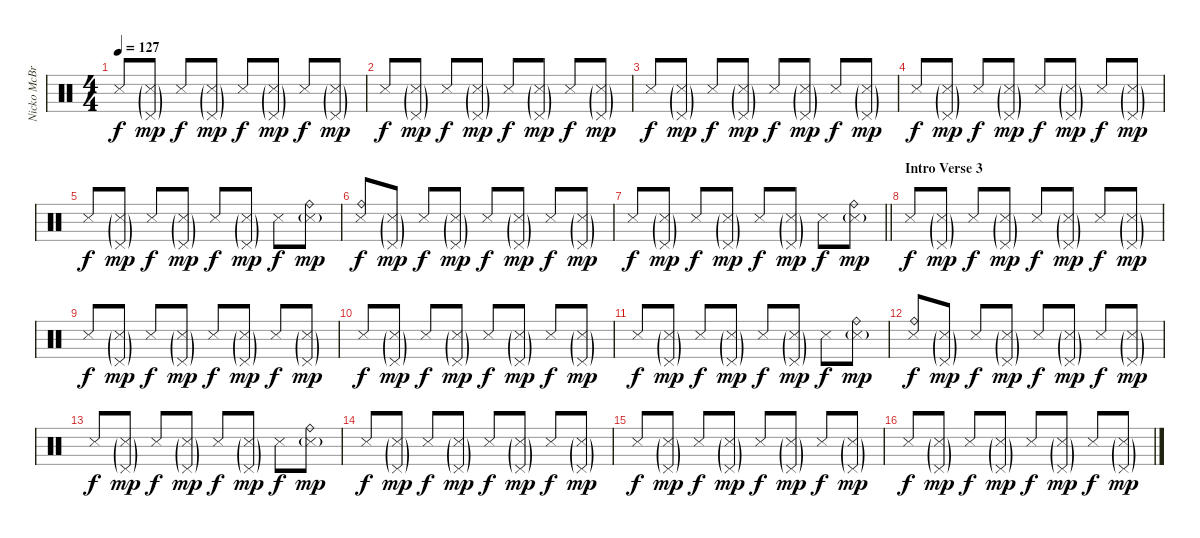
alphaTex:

\track ("Nicko McBrain" "Nicko McBr") {instrument percussion}
\staff {score}
\articulation defaults
\ts (4 4)
\tempo 127
\clef neutral
\ks c "Snare (side stick) 3".8{dy f}
("Pedal Hi-Hat (hit)"{g} "Snare (side stick) 3"{g}).8{dy mp} "Snare (side stick) 3".8{dy f} ("Pedal Hi-Hat (hit)"{g} "Snare (side stick) 3"{g}).8{dy mp} "Snare (side stick) 3".8{dy f} ("Pedal Hi-Hat (hit)"{g} "Snare (side stick) 3"{g}).8{dy mp} "Snare (side stick) 3".8{dy f} ("Pedal Hi-Hat (hit)"{g} "Snare (side stick) 3"{g}).8{dy mp} |
"Snare (side stick) 3".8{dy f} ("Pedal Hi-Hat (hit)"{g} "Snare (side stick) 3"{g}).8{dy mp} "Snare (side stick) 3".8{dy f} ("Pedal Hi-Hat (hit)"{g} "Snare (side stick) 3"{g}).8{dy mp} "Snare (side stick) 3".8{dy f} ("Pedal Hi-Hat (hit)"{g} "Snare (side stick) 3"{g}).8{dy mp} "Snare (side stick) 3".8{dy f} ("Pedal Hi-Hat (hit)"{g} "Snare (side stick) 3"{g}).8{dy mp} |
"Snare (side stick) 3".8{dy f} ("Pedal Hi-Hat (hit)"{g} "Snare (side stick) 3"{g}).8{dy mp} "Snare (side stick) 3".8{dy f} ("Pedal Hi-Hat (hit)"{g} "Snare (side stick) 3"{g}).8{dy mp} "Snare (side stick) 3".8{dy f} ("Pedal Hi-Hat (hit)"{g} "Snare (side stick) 3"{g}).8{dy mp} "Snare (side stick) 3".8{dy f} ("Pedal Hi-Hat (hit)"{g} "Snare (side stick) 3"{g}).8{dy mp} |
"Snare (side stick) 3".8{dy f} ("Pedal Hi-Hat (hit)"{g} "Snare (side stick) 3"{g}).8{dy mp} "Snare (side stick) 3".8{dy f} ("Pedal Hi-Hat (hit)"{g} "Snare (side stick) 3"{g}).8{dy mp} "Snare (side stick) 3".8{dy f} ("Pedal Hi-Hat (hit)"{g} "Snare (side stick) 3"{g}).8{dy mp} "Snare (side stick) 3".8{dy f} ("Pedal Hi-Hat (hit)"{g} "Snare (side stick) 3"{g}).8{dy mp} |
"Snare (side stick) 3".8{dy f} ("Pedal Hi-Hat (hit)"{g} "Snare (side stick) 3"{g}).8{dy mp} "Snare (side stick) 3".8{dy f} ("Pedal Hi-Hat (hit)"{g} "Snare (side stick) 3"{g}).8{dy mp} "Snare (side stick) 3".8{dy f} ("Pedal Hi-Hat (hit)"{g} "Snare (side stick) 3"{g}).8{dy mp} "Snare (side stick) 3".8{dy f} ("Ride (bell)" "Snare (side stick) 3"{g}).8{dy mp} |
("Ride (bell)" "Snare (side stick) 3").8{dy f} ("Pedal Hi-Hat (hit)"{g} "Snare (side stick) 3"{g}).8{dy mp} "Snare (side stick) 3".8{dy f} ("Pedal Hi-Hat (hit)"{g} "Snare (side stick) 3"{g}).8{dy mp} "Snare (side stick) 3".8{dy f} ("Pedal Hi-Hat (hit)"{g} "Snare (side stick) 3"{g}).8{dy mp} "Snare (side stick) 3".8{dy f} ("Pedal Hi-Hat (hit)"{g} "Snare (side stick) 3"{g}).8{dy mp} |
\barLineRight lightlight "Snare (side stick) 3".8{dy f}
("Pedal Hi-Hat (hit)"{g} "Snare (side stick) 3"{g}).8{dy mp} "Snare (side stick) 3".8{dy f} ("Pedal Hi-Hat (hit)"{g} "Snare (side stick) 3"{g}).8{dy mp} "Snare (side stick) 3".8{dy f} ("Pedal Hi-Hat (hit)"{g} "Snare (side stick) 3"{g}).8{dy mp} "Snare (side stick) 3".8{dy f} ("Ride (bell)" "Snare (side stick) 3"{g}).8{dy mp} |
\section ("" "Intro Verse 3")
"Snare (side stick) 3".8{dy f} ("Pedal Hi-Hat (hit)"{g} "Snare (side stick) 3"{g}).8{dy mp} "Snare (side stick) 3".8{dy f} ("Pedal Hi-Hat (hit)"{g} "Snare (side stick) 3"{g}).8{dy mp} "Snare (side stick) 3".8{dy f} ("Pedal Hi-Hat (hit)"{g} "Snare (side stick) 3"{g}).8{dy mp} "Snare (side stick) 3".8{dy f} ("Pedal Hi-Hat (hit)"{g} "Snare (side stick) 3"{g}).8{dy mp} |
"Snare (side stick) 3".8{dy f} ("Pedal Hi-Hat (hit)"{g} "Snare (side stick) 3"{g}).8{dy mp} "Snare (side stick) 3".8{dy f} ("Pedal Hi-Hat (hit)"{g} "Snare (side stick) 3"{g}).8{dy mp} "Snare (side stick) 3".8{dy f} ("Pedal Hi-Hat (hit)"{g} "Snare (side stick) 3"{g}).8{dy mp} "Snare (side stick) 3".8{dy f} ("Pedal Hi-Hat (hit)"{g} "Snare (side stick) 3"{g}).8{dy mp} |
"Snare (side stick) 3".8{dy f} ("Pedal Hi-Hat (hit)"{g} "Snare (side stick) 3"{g}).8{dy mp} "Snare (side stick) 3".8{dy f} ("Pedal Hi-Hat (hit)"{g} "Snare (side stick) 3"{g}).8{dy mp} "Snare (side stick) 3".8{dy f} ("Pedal Hi-Hat (hit)"{g} "Snare (side stick) 3"{g}).8{dy mp} "Snare (side stick) 3".8{dy f} ("Pedal Hi-Hat (hit)"{g} "Snare (side stick) 3"{g}).8{dy mp} |
"Snare (side stick) 3".8{dy f} ("Pedal Hi-Hat (hit)"{g} "Snare (side stick) 3"{g}).8{dy mp} "Snare (side stick) 3".8{dy f} ("Pedal Hi-Hat (hit)"{g} "Snare (side stick) 3"{g}).8{dy mp} "Snare (side stick) 3".8{dy f} ("Pedal Hi-Hat (hit)"{g} "Snare (side stick) 3"{g}).8{dy mp} "Snare (side stick) 3".8{dy f} ("Ride (bell)" "Snare (side stick) 3"{g}).8{dy mp} |
("Ride (bell)" "Snare (side stick) 3").8{dy f} ("Pedal Hi-Hat (hit)"{g} "Snare (side stick) 3"{g}).8{dy mp} "Snare (side stick) 3".8{dy f} ("Pedal Hi-Hat (hit)"{g} "Snare (side stick) 3"{g}).8{dy mp} "Snare (side stick) 3".8{dy f} ("Pedal Hi-Hat (hit)"{g} "Snare (side stick) 3"{g}).8{dy mp} "Snare (side stick) 3".8{dy f} ("Pedal Hi-Hat (hit)"{g} "Snare (side stick) 3"{g}).8{dy mp} |
"Snare (side stick) 3".8{dy f} ("Pedal Hi-Hat (hit)"{g} "Snare (side stick) 3"{g}).8{dy mp} "Snare (side stick) 3".8{dy f} ("Pedal Hi-Hat (hit)"{g} "Snare (side stick) 3"{g}).8{dy mp} "Snare (side stick) 3".8{dy f} ("Pedal Hi-Hat (hit)"{g} "Snare (side stick) 3"{g}).8{dy mp} "Snare (side stick) 3".8{dy f} ("Ride (bell)" "Snare (side stick) 3"{g}).8{dy mp} |
"Snare (side stick) 3".8{dy f} ("Pedal Hi-Hat (hit)"{g} "Snare (side stick) 3"{g}).8{dy mp} "Snare (side stick) 3".8{dy f} ("Pedal Hi-Hat (hit)"{g} "Snare (side stick) 3"{g}).8{dy mp} "Snare (side stick) 3".8{dy f} ("Pedal Hi-Hat (hit)"{g} "Snare (side stick) 3"{g}).8{dy mp} "Snare (side stick) 3".8{dy f} ("Pedal Hi-Hat (hit)"{g} "Snare (side stick) 3"{g}).8{dy mp} |
"Snare (side stick) 3".8{dy f} ("Pedal Hi-Hat (hit)"{g} "Snare (side stick) 3"{g}).8{dy mp} "Snare (side stick) 3".8{dy f} ("Pedal Hi-Hat (hit)"{g} "Snare (side stick) 3"{g}).8{dy mp} "Snare (side stick) 3".8{dy f} ("Pedal Hi-Hat (hit)"{g} "Snare (side stick) 3"{g}).8{dy mp} "Snare (side stick) 3".8{dy f} ("Pedal Hi-Hat (hit)"{g} "Snare (side stick) 3"{g}).8{dy mp} |
"Snare (side stick) 3".8{dy f} ("Pedal Hi-Hat (hit)"{g} "Snare (side stick) 3"{g}).8{dy mp} "Snare (side stick) 3".8{dy f} ("Pedal Hi-Hat (hit)"{g} "Snare (side stick) 3"{g}).8{dy mp} "Snare (side stick) 3".8{dy f} ("Pedal Hi-Hat (hit)"{g} "Snare (side stick) 3"{g}).8{dy mp} "Snare (side stick) 3".8{dy f} ("Pedal Hi-Hat (hit)"{g} "Snare (side stick) 3"{g}).8{dy mp}
